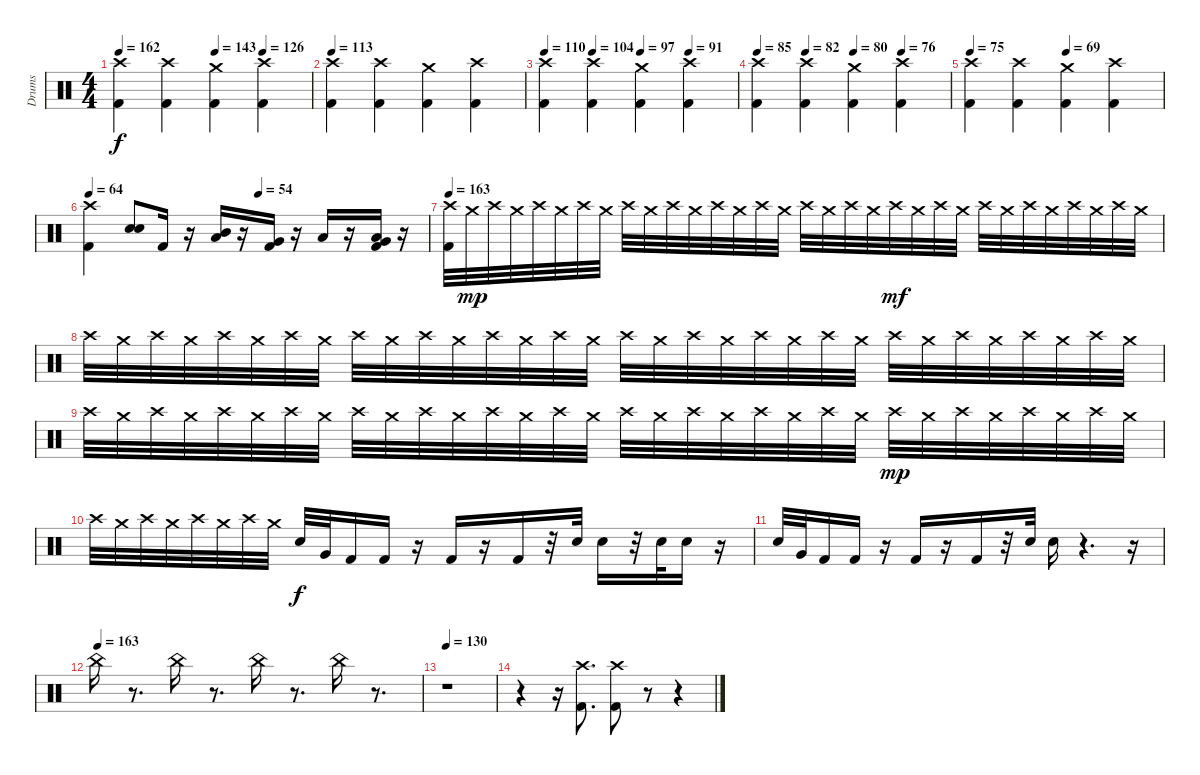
\track ("Drums" "Drums") {instrument percussion}
\staff {score}
\articulation defaults
\ts (4 4)
\tempo 162
\tempo (143 0.5)
\tempo (126 0.75)
\clef neutral
\ks c
("Crash high (hit)" "Kick (hit) 2").4{dy f} ("Crash high (hit)" "Kick (hit) 2").4 ("Crash medium (hit)" "Kick (hit) 2").4 ("Crash high (hit)" "Kick (hit) 2").4 |
\tempo 113
("Crash high (hit)" "Kick (hit) 2").4 ("Crash high (hit)" "Kick (hit) 2").4 ("Crash medium (hit)" "Kick (hit) 2").4 ("Crash high (hit)" "Kick (hit) 2").4 |
\tempo 110
\tempo (104 0.25)
\tempo (97 0.5)
\tempo (91 0.75)
("Crash high (hit)" "Kick (hit) 2").4 ("Crash high (hit)" "Kick (hit) 2").4 ("Crash medium (hit)" "Kick (hit) 2").4 ("Crash high (hit)" "Kick (hit) 2").4 |
\tempo 85
\tempo (82 0.25)
\tempo (80 0.5)
\tempo (76 0.75)
("Crash high (hit)" "Kick (hit) 2").4 ("Crash high (hit)" "Kick (hit) 2").4 ("Crash medium (hit)" "Kick (hit) 2").4 ("Crash high (hit)" "Kick (hit) 2").4 |
\tempo 75
\tempo (69 0.5)
("Crash high (hit)" "Kick (hit) 2").4 ("Crash high (hit)" "Kick (hit) 2").4 ("Crash medium (hit)" "Kick (hit) 2").4 ("Crash high (hit)" "Kick (hit) 2").4 |
\tempo 64
\tempo (54 0.5)
("Crash high (hit)" "Kick (hit) 2").4 ("Electric Snare (hit)" "Electric Snare (hit)").8 "Kick (hit) 2".16 r.16 ("Low Tom (hit)" "Mid Tom (hit)").16 r.16 ("Very Low Tom (hit)" "Kick (hit) 2").16 r.16 "Low Tom (hit)".16 r.16 ("Low Tom (hit)" "Very Low Tom (hit)" "Kick (hit) 2").16 r.16 |
\tempo 163
("Crash high (hit)" "Kick (hit) 2").32 "Crash medium (hit)".32{dy mp} "Crash high (hit)".32 "Crash medium (hit)".32 "Crash high (hit)".32 "Crash medium (hit)".32 "Crash high (hit)".32 "Crash medium (hit)".32 "Crash high (hit)".32 "Crash medium (hit)".32 "Crash high (hit)".32 "Crash medium (hit)".32 "Crash high (hit)".32 "Crash medium (hit)".32 "Crash high (hit)".32 "Crash medium (hit)".32 "Crash high (hit)".32 "Crash medium (hit)".32 "Crash high (hit)".32 "Crash medium (hit)".32 "Crash high (hit)".32{dy mf} "Crash medium (hit)".32 "Crash high (hit)".32 "Crash medium (hit)".32 "Crash high (hit)".32 "Crash medium (hit)".32 "Crash high (hit)".32 "Crash medium (hit)".32 "Crash high (hit)".32 "Crash medium (hit)".32 "Crash high (hit)".32 "Crash medium (hit)".32 |
"Crash high (hit)".32 "Crash medium (hit)".32 "Crash high (hit)".32 "Crash medium (hit)".32 "Crash high (hit)".32 "Crash medium (hit)".32 "Crash high (hit)".32 "Crash medium (hit)".32 "Crash high (hit)".32 "Crash medium (hit)".32 "Crash high (hit)".32 "Crash medium (hit)".32 "Crash high (hit)".32 "Crash medium (hit)".32 "Crash high (hit)".32 "Crash medium (hit)".32 "Crash high (hit)".32 "Crash medium (hit)".32 "Crash high (hit)".32 "Crash medium (hit)".32 "Crash high (hit)".32 "Crash medium (hit)".32 "Crash high (hit)".32 "Crash medium (hit)".32 "Crash high (hit)".32 "Crash medium (hit)".32 "Crash high (hit)".32 "Crash medium (hit)".32 "Crash high (hit)".32 "Crash medium (hit)".32 "Crash high (hit)".32 "Crash medium (hit)".32 |
"Crash high (hit)".32 "Crash medium (hit)".32 "Crash high (hit)".32 "Crash medium (hit)".32 "Crash high (hit)".32 "Crash medium (hit)".32 "Crash high (hit)".32 "Crash medium (hit)".32 "Crash high (hit)".32 "Crash medium (hit)".32 "Crash high (hit)".32 "Crash medium (hit)".32 "Crash high (hit)".32 "Crash medium (hit)".32 "Crash high (hit)".32 "Crash medium (hit)".32 "Crash high (hit)".32 "Crash medium (hit)".32 "Crash high (hit)".32 "Crash medium (hit)".32 "Crash high (hit)".32 "Crash medium (hit)".32 "Crash high (hit)".32 "Crash medium (hit)".32 "Crash high (hit)".32{dy mp} "Crash medium (hit)".32 "Crash high (hit)".32 "Crash medium (hit)".32 "Crash high (hit)".32 "Crash medium (hit)".32 "Crash high (hit)".32 "Crash medium (hit)".32 |
"Crash high (hit)".32 "Crash medium (hit)".32 "Crash high (hit)".32 "Crash medium (hit)".32 "Crash high (hit)".32 "Crash medium (hit)".32 "Crash high (hit)".32 "Crash medium (hit)".32 "Electric Snare (hit)".32{dy f} "Very Low Tom (hit)".32 "Kick (hit) 2".16 "Kick (hit) 2".16 r.16 "Kick (hit) 2".16 r.16 "Kick (hit) 2".16 r.32 "Electric Snare (hit)".32 "Electric Snare (hit)".16 r.32 "Electric Snare (hit)".32 "Electric Snare (hit)".16 r.16 |
"Electric Snare (hit)".32 "Very Low Tom (hit)".32 "Kick (hit) 2".16 "Kick (hit) 2".16 r.16 "Kick (hit) 2".16 r.16 "Kick (hit) 2".16 r.32 "Electric Snare (hit)".32 "Electric Snare (hit)".16 r.4{d} r.16 |
\tempo (163)
"China (hit)".16 r.8{d} "China (hit)".16 r.8{d} "China (hit)".16 r.8{d} "China (hit)".16 r.8{d} |
\tempo 130
r.1 |
r.4 r.16 ("Crash high (hit)" "Kick (hit) 2").8{d} ("Crash high (hit)" "Kick (hit) 2").8 r.8 r.4
